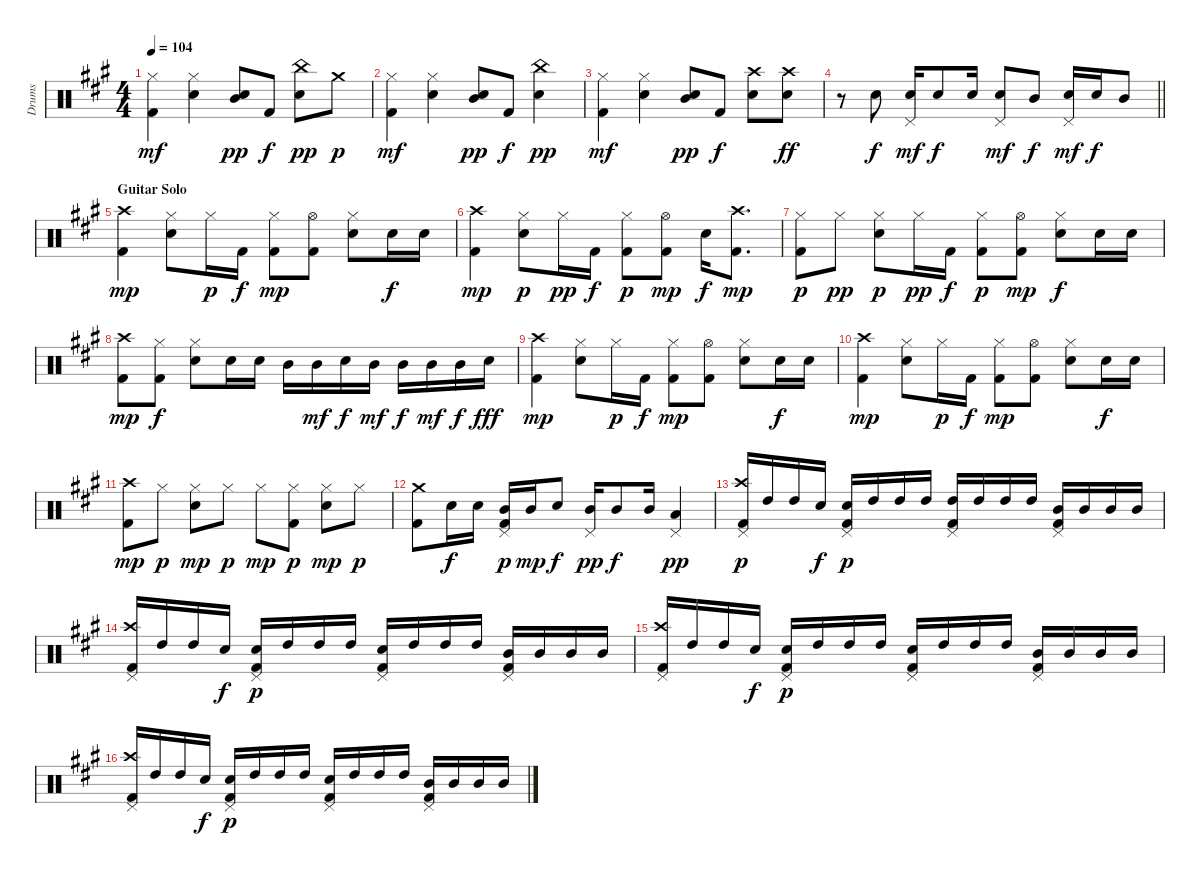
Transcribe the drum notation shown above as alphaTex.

\track ("Drums" "Drums") {instrument percussion}
\staff {score}
\articulation defaults
\ts (4 4)
\tempo 104
\clef neutral
\ks a
("Hi-Hat (closed)" "Kick (hit) 2").4{dy mf} ("Electric Snare (hit)" "Hi-Hat (closed)").4 ("Electric Snare (hit)" "Mid Tom (hit)").8{dy pp} "Kick (hit) 2".8{dy f} ("Electric Snare (hit)" "China (hit)").8{dy pp} "Crash medium (hit)".8{dy p} |
("Hi-Hat (closed)" "Kick (hit) 2").4{dy mf} ("Electric Snare (hit)" "Hi-Hat (closed)").4 ("Electric Snare (hit)" "Mid Tom (hit)").8{dy pp} "Kick (hit) 2".8{dy f} ("Electric Snare (hit)" "China (hit)").4{dy pp} |
("Hi-Hat (closed)" "Kick (hit) 2").4{dy mf} ("Electric Snare (hit)" "Hi-Hat (closed)").4 ("Electric Snare (hit)" "Mid Tom (hit)").8{dy pp} "Kick (hit) 2".8{dy f} ("Electric Snare (hit)" "Crash high (hit)").8 ("Electric Snare (hit)" "Crash high (hit)").8{dy ff} |
\barLineRight lightlight
r.8 "Electric Snare (hit)".8{dy f} ("Electric Snare (hit)" "Pedal Hi-Hat (hit)").16{dy mf} "Electric Snare (hit)".8{dy f} "Electric Snare (hit)".16 ("Electric Snare (hit)" "Pedal Hi-Hat (hit)").8{dy mf} "Mid Tom (hit)".8{dy f} ("Electric Snare (hit)" "Pedal Hi-Hat (hit)").16{dy mf} "Electric Snare (hit)".16{dy f} "Mid Tom (hit)".8 |
\section ("" "Guitar Solo")
("Crash high (hit)" "Kick (hit) 2").4{dy mp} ("Electric Snare (hit)" "Hi-Hat (closed)").8 "Hi-Hat (closed)".16{dy p} "Kick (hit) 2".16{dy f} ("Kick (hit) 2" "Hi-Hat (closed)").8{dy mp} ("Kick (hit) 2" "Hi-Hat (open)").8 ("Electric Snare (hit)" "Hi-Hat (closed)").8 "Electric Snare (hit)".16{dy f} "Electric Snare (hit)".16 |
("Kick (hit) 2" "Crash high (hit)").4{dy mp} ("Electric Snare (hit)" "Hi-Hat (closed)").8{dy p} "Hi-Hat (closed)".16{dy pp} "Kick (hit) 2".16{dy f} ("Kick (hit) 2" "Hi-Hat (closed)").8{dy p} ("Kick (hit) 2" "Hi-Hat (open)").8{dy mp} "Electric Snare (hit)".16{dy f} ("Kick (hit) 2" "Crash high (hit)").8{d dy mp} |
("Kick (hit) 2" "Hi-Hat (closed)").8{dy p} "Hi-Hat (closed)".8{dy pp} ("Electric Snare (hit)" "Hi-Hat (closed)").8{dy p} "Hi-Hat (closed)".16{dy pp} "Kick (hit) 2".16{dy f} ("Kick (hit) 2" "Hi-Hat (closed)").8{dy p} ("Kick (hit) 2" "Hi-Hat (open)").8{dy mp} ("Electric Snare (hit)" "Hi-Hat (closed)").8{dy f} "Electric Snare (hit)".16 "Electric Snare (hit)".16 |
("Kick (hit) 2" "Crash high (hit)").8{dy mp} ("Kick (hit) 2" "Hi-Hat (closed)").8{dy f} ("Electric Snare (hit)" "Hi-Hat (closed)").8 "Electric Snare (hit)".16 "Electric Snare (hit)".16 "Mid Tom (hit)".16 "Mid Tom (hit)".16{dy mf} "Electric Snare (hit)".16{dy f} "Mid Tom (hit)".16{dy mf} "Mid Tom (hit)".16{dy f} "Mid Tom (hit)".16{dy mf} "Mid Tom (hit)".16{dy f} "Electric Snare (hit)".16{dy fff} |
("Crash high (hit)" "Kick (hit) 2").4{dy mp} ("Electric Snare (hit)" "Hi-Hat (closed)").8 "Hi-Hat (closed)".16{dy p} "Kick (hit) 2".16{dy f} ("Kick (hit) 2" "Hi-Hat (closed)").8{dy mp} ("Kick (hit) 2" "Hi-Hat (open)").8 ("Electric Snare (hit)" "Hi-Hat (closed)").8 "Electric Snare (hit)".16{dy f} "Electric Snare (hit)".16 |
("Crash high (hit)" "Kick (hit) 2").4{dy mp} ("Electric Snare (hit)" "Hi-Hat (closed)").8 "Hi-Hat (closed)".16{dy p} "Kick (hit) 2".16{dy f} ("Kick (hit) 2" "Hi-Hat (closed)").8{dy mp} ("Kick (hit) 2" "Hi-Hat (open)").8 ("Electric Snare (hit)" "Hi-Hat (closed)").8 "Electric Snare (hit)".16{dy f} "Electric Snare (hit)".16 |
("Kick (hit) 2" "Crash high (hit)").8{dy mp} "Hi-Hat (closed)".8{dy p} ("Electric Snare (hit)" "Hi-Hat (closed)").8{dy mp} "Hi-Hat (closed)".8{dy p} "Hi-Hat (closed)".8{dy mp} ("Kick (hit) 2" "Hi-Hat (closed)").8{dy p} ("Electric Snare (hit)" "Hi-Hat (closed)").8{dy mp} "Hi-Hat (closed)".8{dy p} |
("Kick (hit) 2" "Crash medium (hit)").8 "Electric Snare (hit)".16{dy f} "Electric Snare (hit)".16 ("Mid Tom (hit)" "Kick (hit) 2" "Pedal Hi-Hat (hit)").16{dy p} "Mid Tom (hit)".16{dy mp} "Electric Snare (hit)".8{dy f} ("Mid Tom (hit)" "Pedal Hi-Hat (hit)").16{dy pp} "Mid Tom (hit)".8{dy f} "Mid Tom (hit)".16 ("Low Tom (hit)" "Pedal Hi-Hat (hit)").4{dy pp} |
("Crash high (hit)" "Kick (hit) 2" "Pedal Hi-Hat (hit)").16{dy p} "High Tom (hit)".16 "High Tom (hit)".16 "Electric Snare (hit)".16{dy f} ("Electric Snare (hit)" "Kick (hit) 2" "Pedal Hi-Hat (hit)").16{dy p} "High Tom (hit)".16 "High Tom (hit)".16 "High Tom (hit)".16 ("High Tom (hit)" "Kick (hit) 2" "Pedal Hi-Hat (hit)").16 "High Tom (hit)".16 "High Tom (hit)".16 "High Tom (hit)".16 ("Mid Tom (hit)" "Kick (hit) 2" "Pedal Hi-Hat (hit)").16 "Mid Tom (hit)".16 "Mid Tom (hit)".16 "Mid Tom (hit)".16 |
("Crash high (hit)" "Kick (hit) 2" "Pedal Hi-Hat (hit)").16 "High Tom (hit)".16 "High Tom (hit)".16 "Electric Snare (hit)".16{dy f} ("Electric Snare (hit)" "Kick (hit) 2" "Pedal Hi-Hat (hit)").16{dy p} "High Tom (hit)".16 "High Tom (hit)".16 "High Tom (hit)".16 ("Electric Snare (hit)" "Kick (hit) 2" "Pedal Hi-Hat (hit)").16 "High Tom (hit)".16 "High Tom (hit)".16 "High Tom (hit)".16 ("Mid Tom (hit)" "Kick (hit) 2" "Pedal Hi-Hat (hit)").16 "Mid Tom (hit)".16 "Mid Tom (hit)".16 "Mid Tom (hit)".16 |
("Crash high (hit)" "Kick (hit) 2" "Pedal Hi-Hat (hit)").16 "High Tom (hit)".16 "High Tom (hit)".16 "Electric Snare (hit)".16{dy f} ("Electric Snare (hit)" "Kick (hit) 2" "Pedal Hi-Hat (hit)").16{dy p} "High Tom (hit)".16 "High Tom (hit)".16 "High Tom (hit)".16 ("Electric Snare (hit)" "Kick (hit) 2" "Pedal Hi-Hat (hit)").16 "High Tom (hit)".16 "High Tom (hit)".16 "High Tom (hit)".16 ("Mid Tom (hit)" "Kick (hit) 2" "Pedal Hi-Hat (hit)").16 "Mid Tom (hit)".16 "Mid Tom (hit)".16 "Mid Tom (hit)".16 |
("Crash high (hit)" "Kick (hit) 2" "Pedal Hi-Hat (hit)").16 "High Tom (hit)".16 "High Tom (hit)".16 "Electric Snare (hit)".16{dy f} ("Electric Snare (hit)" "Kick (hit) 2" "Pedal Hi-Hat (hit)").16{dy p} "High Tom (hit)".16 "High Tom (hit)".16 "High Tom (hit)".16 ("Electric Snare (hit)" "Kick (hit) 2" "Pedal Hi-Hat (hit)").16 "High Tom (hit)".16 "High Tom (hit)".16 "High Tom (hit)".16 ("Mid Tom (hit)" "Kick (hit) 2" "Pedal Hi-Hat (hit)").16 "Mid Tom (hit)".16 "Mid Tom (hit)".16 "Mid Tom (hit)".16
